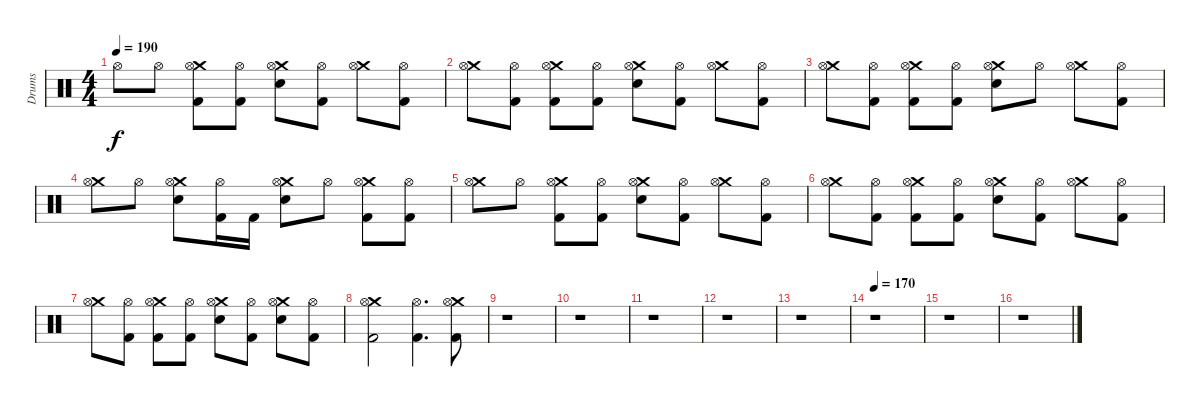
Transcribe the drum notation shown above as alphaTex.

\track ("Drums" "Drums") {instrument percussion}
\staff {score}
\articulation defaults
\ts (4 4)
\tempo 190
\clef neutral
\ks c "Hi-Hat (open)".8{dy f} "Hi-Hat (open)".8
("Crash medium (hit)" "Hi-Hat (open)" "Kick (hit) 2").8 ("Hi-Hat (open)" "Kick (hit) 2").8 ("Crash medium (hit)" "Hi-Hat (open)" "Electric Snare (hit)").8 ("Hi-Hat (open)" "Kick (hit) 2").8 ("Crash medium (hit)" "Hi-Hat (open)").8 ("Hi-Hat (open)" "Kick (hit) 2").8 |
("Crash medium (hit)" "Hi-Hat (open)").8 ("Hi-Hat (open)" "Kick (hit) 2").8 ("Crash medium (hit)" "Hi-Hat (open)" "Kick (hit) 2").8 ("Hi-Hat (open)" "Kick (hit) 2").8 ("Crash medium (hit)" "Hi-Hat (open)" "Electric Snare (hit)").8 ("Hi-Hat (open)" "Kick (hit) 2").8 ("Crash medium (hit)" "Hi-Hat (open)").8 ("Hi-Hat (open)" "Kick (hit) 2").8 |
("Crash medium (hit)" "Hi-Hat (open)").8 ("Hi-Hat (open)" "Kick (hit) 2").8 ("Crash medium (hit)" "Hi-Hat (open)" "Kick (hit) 2").8 ("Hi-Hat (open)" "Kick (hit) 2").8 ("Crash medium (hit)" "Hi-Hat (open)" "Electric Snare (hit)").8 "Hi-Hat (open)".8 ("Crash medium (hit)" "Hi-Hat (open)").8 ("Hi-Hat (open)" "Kick (hit) 2").8 |
("Crash medium (hit)" "Hi-Hat (open)").8 "Hi-Hat (open)".8 ("Crash medium (hit)" "Hi-Hat (open)" "Electric Snare (hit)").8 ("Hi-Hat (open)" "Kick (hit) 2").16 "Kick (hit) 2".16 ("Crash medium (hit)" "Hi-Hat (open)" "Electric Snare (hit)").8 "Hi-Hat (open)".8 ("Crash medium (hit)" "Hi-Hat (open)" "Kick (hit) 2").8 ("Hi-Hat (open)" "Kick (hit) 2").8 |
("Crash medium (hit)" "Hi-Hat (open)").8 "Hi-Hat (open)".8 ("Crash medium (hit)" "Hi-Hat (open)" "Kick (hit) 2").8 ("Hi-Hat (open)" "Kick (hit) 2").8 ("Crash medium (hit)" "Hi-Hat (open)" "Electric Snare (hit)").8 ("Hi-Hat (open)" "Kick (hit) 2").8 ("Crash medium (hit)" "Hi-Hat (open)").8 ("Hi-Hat (open)" "Kick (hit) 2").8 |
("Crash medium (hit)" "Hi-Hat (open)").8 ("Hi-Hat (open)" "Kick (hit) 2").8 ("Crash medium (hit)" "Hi-Hat (open)" "Kick (hit) 2").8 ("Hi-Hat (open)" "Kick (hit) 2").8 ("Crash medium (hit)" "Hi-Hat (open)" "Electric Snare (hit)").8 ("Hi-Hat (open)" "Kick (hit) 2").8 ("Crash medium (hit)" "Hi-Hat (open)").8 ("Hi-Hat (open)" "Kick (hit) 2").8 |
("Crash medium (hit)" "Hi-Hat (open)").8 ("Hi-Hat (open)" "Kick (hit) 2").8 ("Crash medium (hit)" "Hi-Hat (open)" "Kick (hit) 2").8 ("Hi-Hat (open)" "Kick (hit) 2").8 ("Crash medium (hit)" "Hi-Hat (open)" "Electric Snare (hit)").8 ("Hi-Hat (open)" "Kick (hit) 2").8 ("Crash medium (hit)" "Hi-Hat (open)" "Electric Snare (hit)").8 ("Hi-Hat (open)" "Kick (hit) 2").8 |
("Crash medium (hit)" "Hi-Hat (open)" "Kick (hit) 2").2 ("Hi-Hat (open)" "Kick (hit) 2").4{d} ("Crash medium (hit)" "Hi-Hat (open)" "Kick (hit) 2").8 |
r.1 |
r.1 |
r.1 |
r.1 |
r.1 |
\tempo 170
r.1 |
r.1 |
r.1
